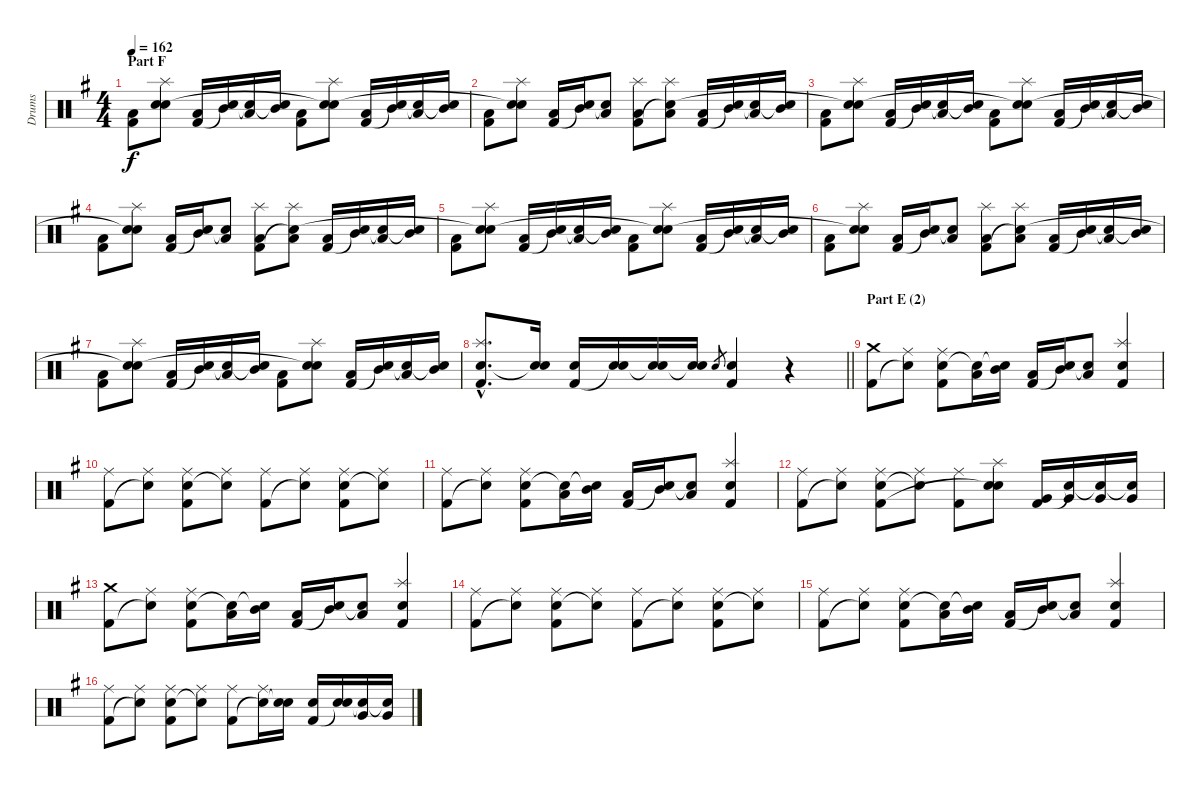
\track ("Drums" "Drums") {instrument percussion}
\staff {score}
\articulation defaults
\ts (4 4)
\section ("" "Part F")
\tempo 162
\clef neutral
\ks g
("Low Tom (hit)" "Kick (hit) 2").8{dy f} ("Splash (hit)" "Electric Snare (hit)" "Snare (hit)"{t}).8 ("Low Tom (hit)" "Kick (hit) 2").16 ("Mid Tom (hit)" "Snare (hit)"{t}).16 ("Low Tom (hit)" "Snare (hit)"{t}).16 ("Mid Tom (hit)" "Snare (hit)"{t}).16 ("Low Tom (hit)" "Kick (hit) 2").8 ("Splash (hit)" "Electric Snare (hit)" "Snare (hit)"{t}).8 ("Low Tom (hit)" "Kick (hit) 2").16 ("Mid Tom (hit)" "Snare (hit)"{t}).16 ("Low Tom (hit)" "Snare (hit)"{t}).16 ("Mid Tom (hit)" "Snare (hit)"{t}).16 |
("Low Tom (hit)" "Kick (hit) 2").8 ("Splash (hit)" "Electric Snare (hit)" "Snare (hit)"{t}).8 ("Low Tom (hit)" "Kick (hit) 2").16 ("Mid Tom (hit)" "Snare (hit)"{t}).16 ("Low Tom (hit)" "Snare (hit)"{t}).8 ("Splash (hit)" "Low Floor Tom (hit)" "Kick (hit) 2").8 ("Splash (hit)" "Low Floor Tom (hit)" "Snare (hit)"{t}).8 ("Low Tom (hit)" "Kick (hit) 2").16 ("Mid Tom (hit)" "Snare (hit)"{t}).16 ("Low Tom (hit)" "Snare (hit)"{t}).16 ("Mid Tom (hit)" "Snare (hit)"{t}).16 |
("Low Tom (hit)" "Kick (hit) 2").8 ("Splash (hit)" "Electric Snare (hit)" "Snare (hit)"{t}).8 ("Low Tom (hit)" "Kick (hit) 2").16 ("Mid Tom (hit)" "Snare (hit)"{t}).16 ("Low Tom (hit)" "Snare (hit)"{t}).16 ("Mid Tom (hit)" "Snare (hit)"{t}).16 ("Low Tom (hit)" "Kick (hit) 2").8 ("Splash (hit)" "Electric Snare (hit)" "Snare (hit)"{t}).8 ("Low Tom (hit)" "Kick (hit) 2").16 ("Mid Tom (hit)" "Snare (hit)"{t}).16 ("Low Tom (hit)" "Snare (hit)"{t}).16 ("Mid Tom (hit)" "Snare (hit)"{t}).16 |
("Low Tom (hit)" "Kick (hit) 2").8 ("Splash (hit)" "Electric Snare (hit)" "Snare (hit)"{t}).8 ("Low Tom (hit)" "Kick (hit) 2").16 ("Mid Tom (hit)" "Snare (hit)"{t}).16 ("Low Tom (hit)" "Snare (hit)"{t}).8 ("Splash (hit)" "Low Floor Tom (hit)" "Kick (hit) 2").8 ("Splash (hit)" "Low Floor Tom (hit)" "Snare (hit)"{t}).8 ("Low Tom (hit)" "Kick (hit) 2").16 ("Mid Tom (hit)" "Snare (hit)"{t}).16 ("Low Tom (hit)" "Snare (hit)"{t}).16 ("Mid Tom (hit)" "Snare (hit)"{t}).16 |
("Low Tom (hit)" "Kick (hit) 2").8 ("Splash (hit)" "Electric Snare (hit)" "Snare (hit)"{t}).8 ("Low Tom (hit)" "Kick (hit) 2").16 ("Mid Tom (hit)" "Snare (hit)"{t}).16 ("Low Tom (hit)" "Snare (hit)"{t}).16 ("Mid Tom (hit)" "Snare (hit)"{t}).16 ("Low Tom (hit)" "Kick (hit) 2").8 ("Splash (hit)" "Electric Snare (hit)" "Snare (hit)"{t}).8 ("Low Tom (hit)" "Kick (hit) 2").16 ("Mid Tom (hit)" "Snare (hit)"{t}).16 ("Low Tom (hit)" "Snare (hit)"{t}).16 ("Mid Tom (hit)" "Snare (hit)"{t}).16 |
("Low Tom (hit)" "Kick (hit) 2").8 ("Splash (hit)" "Electric Snare (hit)" "Snare (hit)"{t}).8 ("Low Tom (hit)" "Kick (hit) 2").16 ("Mid Tom (hit)" "Snare (hit)"{t}).16 ("Low Tom (hit)" "Snare (hit)"{t}).8 ("Splash (hit)" "Low Floor Tom (hit)" "Kick (hit) 2").8 ("Splash (hit)" "Low Floor Tom (hit)" "Snare (hit)"{t}).8 ("Low Tom (hit)" "Kick (hit) 2").16 ("Mid Tom (hit)" "Snare (hit)"{t}).16 ("Low Tom (hit)" "Snare (hit)"{t}).16 ("Mid Tom (hit)" "Snare (hit)"{t}).16 |
("Low Tom (hit)" "Kick (hit) 2").8 ("Splash (hit)" "Electric Snare (hit)" "Snare (hit)"{t}).8 ("Low Tom (hit)" "Kick (hit) 2").16 ("Mid Tom (hit)" "Snare (hit)"{t}).16 ("Low Tom (hit)" "Snare (hit)"{t}).16 ("Mid Tom (hit)" "Snare (hit)"{t}).16 ("Low Tom (hit)" "Kick (hit) 2").8 ("Splash (hit)" "Electric Snare (hit)" "Snare (hit)"{t}).8 ("Low Tom (hit)" "Kick (hit) 2").16 ("Mid Tom (hit)" "Snare (hit)"{t}).16 ("Low Tom (hit)" "Snare (hit)"{t}).16 ("Mid Tom (hit)" "Snare (hit)"{t}).16 |
\barLineRight lightlight
("Splash (hit)"{hac} "Electric Snare (hit)"{hac} "Kick (hit) 2"{hac}).8{d} ("Electric Snare (hit)" "Snare (hit)"{t}).16 ("Electric Snare (hit)" "Kick (hit) 2").16 ("Electric Snare (hit)" "Snare (hit)"{t}).16 ("Electric Snare (hit)" "Snare (hit)"{t}).16 ("Electric Snare (hit)" "Snare (hit)"{t}).16 "Electric Snare (hit)".8{gr} ("Electric Snare (hit)" "Kick (hit) 2").4 r.4 |
\section ("" "Part E (2)")
("Crash medium (hit)" "Kick (hit) 2").8 ("Ride (middle)" "Snare (hit)"{t}).8 ("Ride (middle)" "Electric Snare (hit)" "Kick (hit) 2").8 ("Low Tom (hit)" "Snare (hit)"{t}).16 ("Mid Tom (hit)" "Snare (hit)"{t}).16 ("Low Tom (hit)" "Kick (hit) 2").16 ("Mid Tom (hit)" "Snare (hit)"{t}).16 ("Low Tom (hit)" "Snare (hit)"{t}).8 ("Splash (hit)" "Electric Snare (hit)" "Kick (hit) 2").4 |
("Ride (middle)" "Kick (hit) 2").8 ("Ride (middle)" "Snare (hit)"{t}).8 ("Ride (middle)" "Electric Snare (hit)" "Kick (hit) 2").8 ("Ride (middle)" "Snare (hit)"{t}).8 ("Ride (middle)" "Kick (hit) 2").8 ("Ride (middle)" "Snare (hit)"{t}).8 ("Ride (middle)" "Electric Snare (hit)" "Kick (hit) 2").8 ("Ride (middle)" "Snare (hit)"{t}).8 |
("Ride (middle)" "Kick (hit) 2").8 ("Ride (middle)" "Snare (hit)"{t}).8 ("Ride (middle)" "Electric Snare (hit)" "Kick (hit) 2").8 ("Low Tom (hit)" "Snare (hit)"{t}).16 ("Mid Tom (hit)" "Snare (hit)"{t}).16 ("Low Tom (hit)" "Kick (hit) 2").16 ("Mid Tom (hit)" "Snare (hit)"{t}).16 ("Low Tom (hit)" "Snare (hit)"{t}).8 ("Splash (hit)" "Electric Snare (hit)" "Kick (hit) 2").4 |
("Ride (middle)" "Kick (hit) 2").8 ("Ride (middle)" "Snare (hit)"{t}).8 ("Ride (middle)" "Electric Snare (hit)" "Kick (hit) 2").8 ("Ride (middle)" "Snare (hit)"{t}).8 ("Ride (middle)" "Kick (hit) 2").8 ("Splash (hit)" "Electric Snare (hit)" "Snare (hit)"{t}).8 ("Very Low Tom (hit)" "Kick (hit) 2").16 ("Very Low Tom (hit)" "Snare (hit)"{t}).16 ("Very Low Tom (hit)" "Snare (hit)"{t}).16 ("Very Low Tom (hit)" "Snare (hit)"{t}).16 |
("Crash medium (hit)" "Kick (hit) 2").8 ("Ride (middle)" "Snare (hit)"{t}).8 ("Ride (middle)" "Electric Snare (hit)" "Kick (hit) 2").8 ("Low Tom (hit)" "Snare (hit)"{t}).16 ("Mid Tom (hit)" "Snare (hit)"{t}).16 ("Low Tom (hit)" "Kick (hit) 2").16 ("Mid Tom (hit)" "Snare (hit)"{t}).16 ("Low Tom (hit)" "Snare (hit)"{t}).8 ("Splash (hit)" "Electric Snare (hit)" "Kick (hit) 2").4 |
("Ride (middle)" "Kick (hit) 2").8 ("Ride (middle)" "Snare (hit)"{t}).8 ("Ride (middle)" "Electric Snare (hit)" "Kick (hit) 2").8 ("Ride (middle)" "Snare (hit)"{t}).8 ("Ride (middle)" "Kick (hit) 2").8 ("Ride (middle)" "Snare (hit)"{t}).8 ("Ride (middle)" "Electric Snare (hit)" "Kick (hit) 2").8 ("Ride (middle)" "Snare (hit)"{t}).8 |
("Ride (middle)" "Kick (hit) 2").8 ("Ride (middle)" "Snare (hit)"{t}).8 ("Ride (middle)" "Electric Snare (hit)" "Kick (hit) 2").8 ("Low Tom (hit)" "Snare (hit)"{t}).16 ("Mid Tom (hit)" "Snare (hit)"{t}).16 ("Low Tom (hit)" "Kick (hit) 2").16 ("Mid Tom (hit)" "Snare (hit)"{t}).16 ("Low Tom (hit)" "Snare (hit)"{t}).8 ("Splash (hit)" "Electric Snare (hit)" "Kick (hit) 2").4 |
("Ride (middle)" "Kick (hit) 2").8 ("Ride (middle)" "Snare (hit)"{t}).8 ("Ride (middle)" "Electric Snare (hit)" "Kick (hit) 2").8 ("Ride (middle)" "Snare (hit)"{t}).8 ("Ride (middle)" "Kick (hit) 2").8 ("Ride (middle)" "Snare (hit)"{t}).16 ("Electric Snare (hit)" "Snare (hit)"{t}).16 ("Electric Snare (hit)" "Kick (hit) 2").16 ("Electric Snare (hit)" "Snare (hit)"{t}).16 ("Very Low Tom (hit)" "Snare (hit)"{t}).16 ("Very Low Tom (hit)" "Snare (hit)"{t}).16
